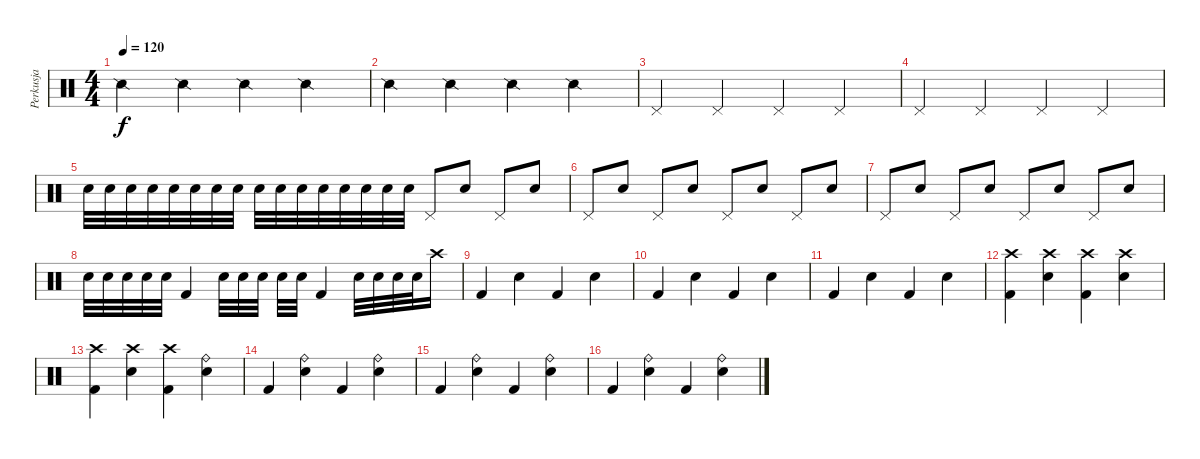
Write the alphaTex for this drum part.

\track ("Perkusja" "Perkusja") {instrument percussion}
\staff {score}
\articulation defaults
\ts (4 4)
\tempo 120
\clef neutral
\ks c "Snare (side stick) 2".4{dy f} "Snare (side stick) 2".4 "Snare (side stick) 2".4 "Snare (side stick) 2".4
|
"Snare (side stick) 2".4 "Snare (side stick) 2".4 "Snare (side stick) 2".4 "Snare (side stick) 2".4 |
"Pedal Hi-Hat (hit)".4 "Pedal Hi-Hat (hit)".4 "Pedal Hi-Hat (hit)".4 "Pedal Hi-Hat (hit)".4 |
"Pedal Hi-Hat (hit)".4 "Pedal Hi-Hat (hit)".4 "Pedal Hi-Hat (hit)".4 "Pedal Hi-Hat (hit)".4 |
"Electric Snare (hit)".32 "Electric Snare (hit)".32 "Electric Snare (hit)".32 "Electric Snare (hit)".32 "Electric Snare (hit)".32 "Electric Snare (hit)".32 "Electric Snare (hit)".32 "Electric Snare (hit)".32 "Electric Snare (hit)".32 "Electric Snare (hit)".32 "Electric Snare (hit)".32 "Electric Snare (hit)".32 "Electric Snare (hit)".32 "Electric Snare (hit)".32 "Electric Snare (hit)".32 "Electric Snare (hit)".32 "Pedal Hi-Hat (hit)".8 "Snare (hit) 2".8 "Pedal Hi-Hat (hit)".8 "Snare (hit) 2".8 |
"Pedal Hi-Hat (hit)".8 "Snare (hit) 2".8 "Pedal Hi-Hat (hit)".8 "Snare (hit) 2".8 "Pedal Hi-Hat (hit)".8 "Snare (hit) 2".8 "Pedal Hi-Hat (hit)".8 "Snare (hit) 2".8 |
"Pedal Hi-Hat (hit)".8 "Snare (hit) 2".8 "Pedal Hi-Hat (hit)".8 "Snare (hit) 2".8 "Pedal Hi-Hat (hit)".8 "Snare (hit) 2".8 "Pedal Hi-Hat (hit)".8 "Snare (hit) 2".8 |
"Electric Snare (hit)".32 "Electric Snare (hit)".32 "Electric Snare (hit)".32 "Electric Snare (hit)".32 "Electric Snare (hit)".32 "Kick (hit) 2".4 "Electric Snare (hit)".32 "Electric Snare (hit)".32 "Electric Snare (hit)".32 "Electric Snare (hit)".32 "Electric Snare (hit)".32 "Kick (hit) 2".4 "Electric Snare (hit)".32 "Electric Snare (hit)".32 "Electric Snare (hit)".32 "Electric Snare (hit)".32 "Crash high (hit)".16 |
"Kick (hit) 2".4 "Snare (hit) 2".4 "Kick (hit) 2".4 "Snare (hit) 2".4 |
"Kick (hit) 2".4 "Snare (hit) 2".4 "Kick (hit) 2".4 "Snare (hit) 2".4 |
"Kick (hit) 2".4 "Snare (hit) 2".4 "Kick (hit) 2".4 "Snare (hit) 2".4 |
("Crash high (hit)" "Kick (hit) 2").4 ("Snare (hit) 2" "Crash high (hit)").4 ("Crash high (hit)" "Kick (hit) 2").4 ("Snare (hit) 2" "Crash high (hit)").4 |
("Crash high (hit)" "Kick (hit) 2").4 ("Snare (hit) 2" "Crash high (hit)").4 ("Crash high (hit)" "Kick (hit) 2").4 ("Ride (bell)" "Snare (hit) 2").4 |
"Kick (hit) 2".4 ("Ride (bell)" "Snare (hit) 2").4 "Kick (hit) 2".4 ("Ride (bell)" "Snare (hit) 2").4 |
"Kick (hit) 2".4 ("Ride (bell)" "Snare (hit) 2").4 "Kick (hit) 2".4 ("Ride (bell)" "Snare (hit) 2").4 |
"Kick (hit) 2".4 ("Ride (bell)" "Snare (hit) 2").4 "Kick (hit) 2".4 ("Ride (bell)" "Snare (hit) 2").4
